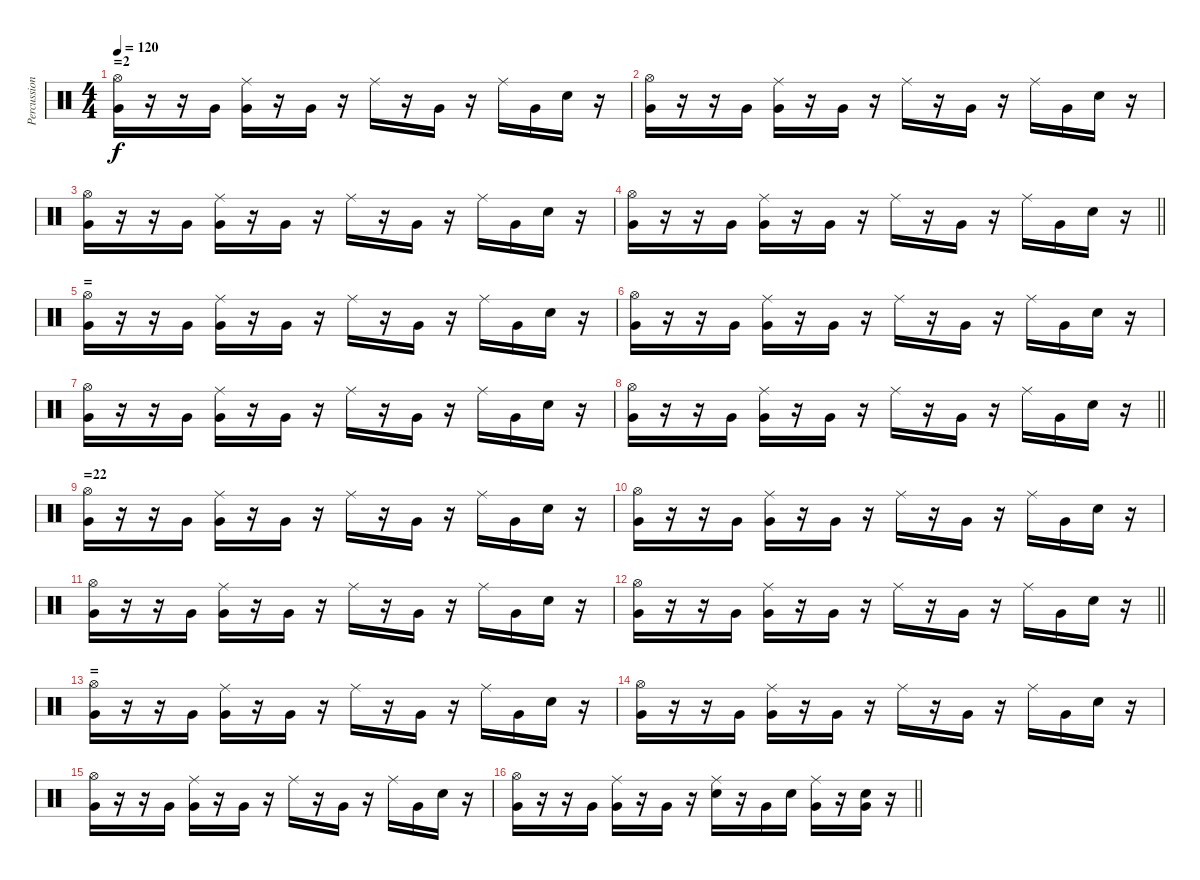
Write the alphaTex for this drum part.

\track ("Percussion" "Percussion") {instrument percussion}
\staff {score}
\articulation defaults
\ts (4 4)
\section ("" "=2")
\tempo 120
\clef neutral
\ks c
("Very Low Tom (hit)" "Hi-Hat (open)").16{dy f} r.16 r.16 "Very Low Tom (hit)".16 ("Very Low Tom (hit)" "Ride (middle)").16 r.16 "Very Low Tom (hit)".16 r.16 "Ride (middle)".16 r.16 "Very Low Tom (hit)".16 r.16 "Ride (middle)".16 "Very Low Tom (hit)".16 "Electric Snare (hit)".16 r.16 |
("Very Low Tom (hit)" "Hi-Hat (open)").16 r.16 r.16 "Very Low Tom (hit)".16 ("Very Low Tom (hit)" "Ride (middle)").16 r.16 "Very Low Tom (hit)".16 r.16 "Ride (middle)".16 r.16 "Very Low Tom (hit)".16 r.16 "Ride (middle)".16 "Very Low Tom (hit)".16 "Electric Snare (hit)".16 r.16 |
("Very Low Tom (hit)" "Hi-Hat (open)").16 r.16 r.16 "Very Low Tom (hit)".16 ("Very Low Tom (hit)" "Ride (middle)").16 r.16 "Very Low Tom (hit)".16 r.16 "Ride (middle)".16 r.16 "Very Low Tom (hit)".16 r.16 "Ride (middle)".16 "Very Low Tom (hit)".16 "Electric Snare (hit)".16 r.16 |
\barLineRight lightlight
("Very Low Tom (hit)" "Hi-Hat (open)").16 r.16 r.16 "Very Low Tom (hit)".16 ("Very Low Tom (hit)" "Ride (middle)").16 r.16 "Very Low Tom (hit)".16 r.16 "Ride (middle)".16 r.16 "Very Low Tom (hit)".16 r.16 "Ride (middle)".16 "Very Low Tom (hit)".16 "Electric Snare (hit)".16 r.16 |
\section ("" "=")
("Very Low Tom (hit)" "Hi-Hat (open)").16 r.16 r.16 "Very Low Tom (hit)".16 ("Very Low Tom (hit)" "Ride (middle)").16 r.16 "Very Low Tom (hit)".16 r.16 "Ride (middle)".16 r.16 "Very Low Tom (hit)".16 r.16 "Ride (middle)".16 "Very Low Tom (hit)".16 "Electric Snare (hit)".16 r.16 |
("Very Low Tom (hit)" "Hi-Hat (open)").16 r.16 r.16 "Very Low Tom (hit)".16 ("Very Low Tom (hit)" "Ride (middle)").16 r.16 "Very Low Tom (hit)".16 r.16 "Ride (middle)".16 r.16 "Very Low Tom (hit)".16 r.16 "Ride (middle)".16 "Very Low Tom (hit)".16 "Electric Snare (hit)".16 r.16 |
("Very Low Tom (hit)" "Hi-Hat (open)").16 r.16 r.16 "Very Low Tom (hit)".16 ("Very Low Tom (hit)" "Ride (middle)").16 r.16 "Very Low Tom (hit)".16 r.16 "Ride (middle)".16 r.16 "Very Low Tom (hit)".16 r.16 "Ride (middle)".16 "Very Low Tom (hit)".16 "Electric Snare (hit)".16 r.16 |
\barLineRight lightlight
("Very Low Tom (hit)" "Hi-Hat (open)").16 r.16 r.16 "Very Low Tom (hit)".16 ("Very Low Tom (hit)" "Ride (middle)").16 r.16 "Very Low Tom (hit)".16 r.16 "Ride (middle)".16 r.16 "Very Low Tom (hit)".16 r.16 "Ride (middle)".16 "Very Low Tom (hit)".16 "Electric Snare (hit)".16 r.16 |
\section ("" "=22")
("Very Low Tom (hit)" "Hi-Hat (open)").16 r.16 r.16 "Very Low Tom (hit)".16 ("Very Low Tom (hit)" "Ride (middle)").16 r.16 "Very Low Tom (hit)".16 r.16 "Ride (middle)".16 r.16 "Very Low Tom (hit)".16 r.16 "Ride (middle)".16 "Very Low Tom (hit)".16 "Electric Snare (hit)".16 r.16 |
("Very Low Tom (hit)" "Hi-Hat (open)").16 r.16 r.16 "Very Low Tom (hit)".16 ("Very Low Tom (hit)" "Ride (middle)").16 r.16 "Very Low Tom (hit)".16 r.16 "Ride (middle)".16 r.16 "Very Low Tom (hit)".16 r.16 "Ride (middle)".16 "Very Low Tom (hit)".16 "Electric Snare (hit)".16 r.16 |
("Very Low Tom (hit)" "Hi-Hat (open)").16 r.16 r.16 "Very Low Tom (hit)".16 ("Very Low Tom (hit)" "Ride (middle)").16 r.16 "Very Low Tom (hit)".16 r.16 "Ride (middle)".16 r.16 "Very Low Tom (hit)".16 r.16 "Ride (middle)".16 "Very Low Tom (hit)".16 "Electric Snare (hit)".16 r.16 |
\barLineRight lightlight
("Very Low Tom (hit)" "Hi-Hat (open)").16 r.16 r.16 "Very Low Tom (hit)".16 ("Very Low Tom (hit)" "Ride (middle)").16 r.16 "Very Low Tom (hit)".16 r.16 "Ride (middle)".16 r.16 "Very Low Tom (hit)".16 r.16 "Ride (middle)".16 "Very Low Tom (hit)".16 "Electric Snare (hit)".16 r.16 |
\section ("" "=")
("Very Low Tom (hit)" "Hi-Hat (open)").16 r.16 r.16 "Very Low Tom (hit)".16 ("Very Low Tom (hit)" "Ride (middle)").16 r.16 "Very Low Tom (hit)".16 r.16 "Ride (middle)".16 r.16 "Very Low Tom (hit)".16 r.16 "Ride (middle)".16 "Very Low Tom (hit)".16 "Electric Snare (hit)".16 r.16 |
("Very Low Tom (hit)" "Hi-Hat (open)").16 r.16 r.16 "Very Low Tom (hit)".16 ("Very Low Tom (hit)" "Ride (middle)").16 r.16 "Very Low Tom (hit)".16 r.16 "Ride (middle)".16 r.16 "Very Low Tom (hit)".16 r.16 "Ride (middle)".16 "Very Low Tom (hit)".16 "Electric Snare (hit)".16 r.16 |
("Very Low Tom (hit)" "Hi-Hat (open)").16 r.16 r.16 "Very Low Tom (hit)".16 ("Very Low Tom (hit)" "Ride (middle)").16 r.16 "Very Low Tom (hit)".16 r.16 "Ride (middle)".16 r.16 "Very Low Tom (hit)".16 r.16 "Ride (middle)".16 "Very Low Tom (hit)".16 "Electric Snare (hit)".16 r.16 |
\barLineRight lightlight
("Very Low Tom (hit)" "Hi-Hat (open)").16 r.16 r.16 "Very Low Tom (hit)".16 ("Very Low Tom (hit)" "Ride (middle)").16 r.16 "Very Low Tom (hit)".16 r.16 ("Electric Snare (hit)" "Ride (middle)").16 r.16 "Very Low Tom (hit)".16 "Electric Snare (hit)".16 ("Very Low Tom (hit)" "Ride (middle)").16 r.16 ("Very Low Tom (hit)" "Electric Snare (hit)").16 r.16
